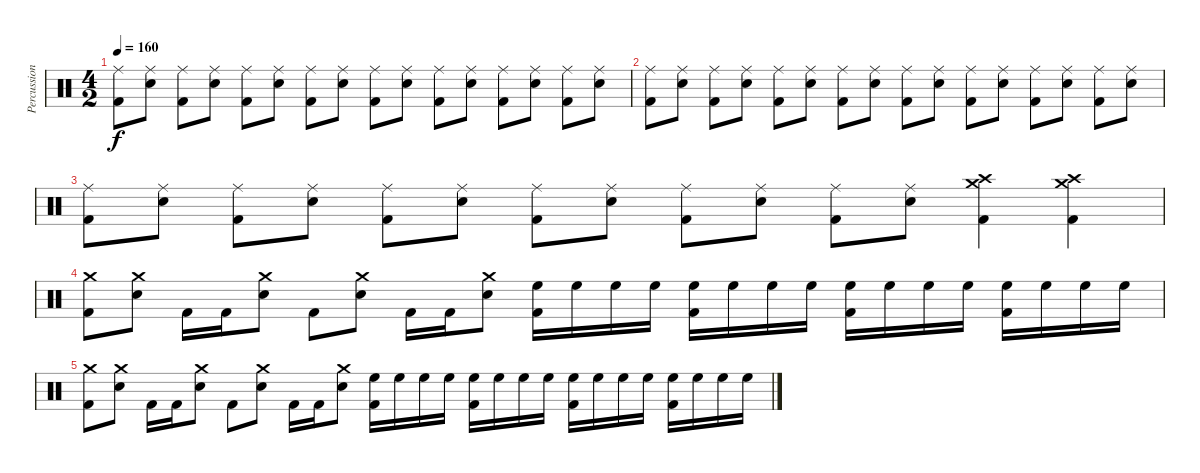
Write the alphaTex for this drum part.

\track ("Percussion" "Percussion") {instrument percussion}
\staff {score}
\articulation defaults
\ts (4 2)
\tempo 160
\clef neutral
\ks c
("Ride (middle)" "Kick (hit) 2").8{dy f} ("Ride (middle)" "Snare (hit) 2").8 ("Ride (middle)" "Kick (hit) 2").8 ("Ride (middle)" "Snare (hit) 2").8 ("Ride (middle)" "Kick (hit) 2").8 ("Ride (middle)" "Snare (hit) 2").8 ("Ride (middle)" "Kick (hit) 2").8 ("Ride (middle)" "Snare (hit) 2").8 ("Ride (middle)" "Kick (hit) 2").8 ("Ride (middle)" "Snare (hit) 2").8 ("Ride (middle)" "Kick (hit) 2").8 ("Ride (middle)" "Snare (hit) 2").8 ("Ride (middle)" "Kick (hit) 2").8 ("Ride (middle)" "Snare (hit) 2").8 ("Ride (middle)" "Kick (hit) 2").8 ("Ride (middle)" "Snare (hit) 2").8 |
("Ride (middle)" "Kick (hit) 2").8 ("Ride (middle)" "Snare (hit) 2").8 ("Ride (middle)" "Kick (hit) 2").8 ("Ride (middle)" "Snare (hit) 2").8 ("Ride (middle)" "Kick (hit) 2").8 ("Ride (middle)" "Snare (hit) 2").8 ("Ride (middle)" "Kick (hit) 2").8 ("Ride (middle)" "Snare (hit) 2").8 ("Ride (middle)" "Kick (hit) 2").8 ("Ride (middle)" "Snare (hit) 2").8 ("Ride (middle)" "Kick (hit) 2").8 ("Ride (middle)" "Snare (hit) 2").8 ("Ride (middle)" "Kick (hit) 2").8 ("Ride (middle)" "Snare (hit) 2").8 ("Ride (middle)" "Kick (hit) 2").8 ("Ride (middle)" "Snare (hit) 2").8 |
("Ride (middle)" "Kick (hit) 2").8 ("Ride (middle)" "Snare (hit) 2").8 ("Ride (middle)" "Kick (hit) 2").8 ("Ride (middle)" "Snare (hit) 2").8 ("Ride (middle)" "Kick (hit) 2").8 ("Ride (middle)" "Snare (hit) 2").8 ("Ride (middle)" "Kick (hit) 2").8 ("Ride (middle)" "Snare (hit) 2").8 ("Ride (middle)" "Kick (hit) 2").8 ("Ride (middle)" "Snare (hit) 2").8 ("Ride (middle)" "Kick (hit) 2").8 ("Ride (middle)" "Snare (hit) 2").8 ("Crash high (hit)" "Crash medium (hit)" "Kick (hit) 2").4 ("Crash high (hit)" "Crash medium (hit)" "Kick (hit) 2").4 |
("Crash medium (hit)" "Kick (hit) 2").8 ("Crash medium (hit)" "Snare (hit) 2").8 "Kick (hit) 2".16 "Kick (hit) 2".16 ("Crash medium (hit)" "Snare (hit) 2").8 "Kick (hit) 2".8 ("Crash medium (hit)" "Snare (hit) 2").8 "Kick (hit) 2".16 "Kick (hit) 2".16 ("Crash medium (hit)" "Snare (hit) 2").8 ("High Floor Tom (hit)" "Kick (hit) 2").16 "High Floor Tom (hit)".16 "High Floor Tom (hit)".16 "High Floor Tom (hit)".16 ("High Floor Tom (hit)" "Kick (hit) 2").16 "High Floor Tom (hit)".16 "High Floor Tom (hit)".16 "High Floor Tom (hit)".16 ("High Floor Tom (hit)" "Kick (hit) 2").16 "High Floor Tom (hit)".16 "High Floor Tom (hit)".16 "High Floor Tom (hit)".16 ("High Floor Tom (hit)" "Kick (hit) 2").16 "High Floor Tom (hit)".16 "High Floor Tom (hit)".16 "High Floor Tom (hit)".16 |
("Crash medium (hit)" "Kick (hit) 2").8 ("Crash medium (hit)" "Snare (hit) 2").8 "Kick (hit) 2".16 "Kick (hit) 2".16 ("Crash medium (hit)" "Snare (hit) 2").8 "Kick (hit) 2".8 ("Crash medium (hit)" "Snare (hit) 2").8 "Kick (hit) 2".16 "Kick (hit) 2".16 ("Crash medium (hit)" "Snare (hit) 2").8 ("High Floor Tom (hit)" "Kick (hit) 2").16 "High Floor Tom (hit)".16 "High Floor Tom (hit)".16 "High Floor Tom (hit)".16 ("High Floor Tom (hit)" "Kick (hit) 2").16 "High Floor Tom (hit)".16 "High Floor Tom (hit)".16 "High Floor Tom (hit)".16 ("High Floor Tom (hit)" "Kick (hit) 2").16 "High Floor Tom (hit)".16 "High Floor Tom (hit)".16 "High Floor Tom (hit)".16 ("High Floor Tom (hit)" "Kick (hit) 2").16 "High Floor Tom (hit)".16 "High Floor Tom (hit)".16 "High Floor Tom (hit)".16
